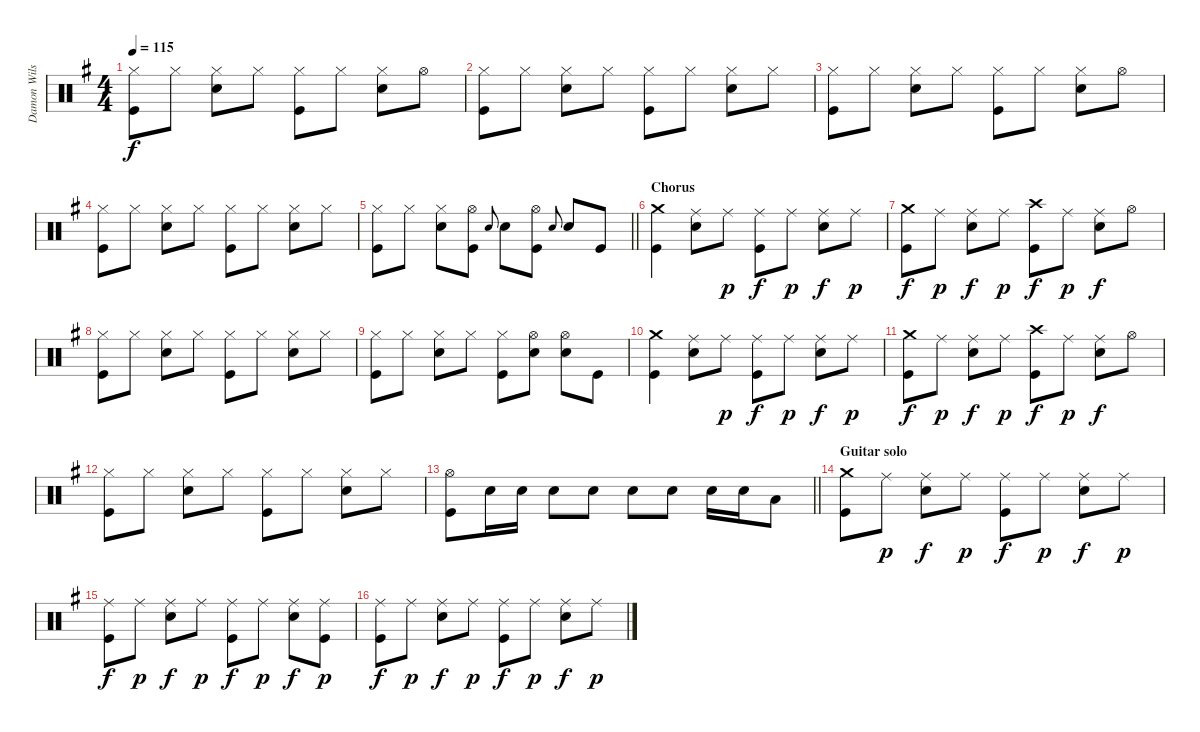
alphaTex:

\track ("Damon Wilson" "Damon Wils") {instrument percussion}
\staff {score}
\articulation defaults
\ts (4 4)
\tempo 115
\clef neutral
\ks g
("Hi-Hat (closed)" "Kick (hit)").8{dy f} "Hi-Hat (closed)".8 ("Hi-Hat (closed)" "Electric Snare (hit)").8 "Hi-Hat (closed)".8 ("Hi-Hat (closed)" "Kick (hit)").8 "Hi-Hat (closed)".8 ("Hi-Hat (closed)" "Electric Snare (hit)").8 "Hi-Hat (open)".8 |
("Hi-Hat (closed)" "Kick (hit)").8 "Hi-Hat (closed)".8 ("Hi-Hat (closed)" "Electric Snare (hit)").8 "Hi-Hat (closed)".8 ("Hi-Hat (closed)" "Kick (hit)").8 "Hi-Hat (closed)".8 ("Hi-Hat (closed)" "Electric Snare (hit)").8 "Hi-Hat (closed)".8 |
("Hi-Hat (closed)" "Kick (hit)").8 "Hi-Hat (closed)".8 ("Hi-Hat (closed)" "Electric Snare (hit)").8 "Hi-Hat (closed)".8 ("Hi-Hat (closed)" "Kick (hit)").8 "Hi-Hat (closed)".8 ("Hi-Hat (closed)" "Electric Snare (hit)").8 "Hi-Hat (open)".8 |
("Hi-Hat (closed)" "Kick (hit)").8 "Hi-Hat (closed)".8 ("Hi-Hat (closed)" "Electric Snare (hit)").8 "Hi-Hat (closed)".8 ("Hi-Hat (closed)" "Kick (hit)").8 "Hi-Hat (closed)".8 ("Hi-Hat (closed)" "Electric Snare (hit)").8 "Hi-Hat (closed)".8 |
\barLineRight lightlight
("Hi-Hat (closed)" "Kick (hit)").8 "Hi-Hat (closed)".8 ("Hi-Hat (closed)" "Electric Snare (hit)").8 ("Hi-Hat (open)" "Kick (hit)").8 "Electric Snare (hit)".8{gr onbeat} "Electric Snare (hit)".8 ("Hi-Hat (open)" "Kick (hit)").8 "Electric Snare (hit)".8{gr onbeat} "Electric Snare (hit)".8 "Kick (hit)".8 |
\section ("" "Chorus")
("Crash medium (hit)" "Kick (hit)").4 ("Ride (middle)" "Electric Snare (hit)").8 "Ride (middle)".8{dy p} ("Ride (middle)" "Kick (hit)").8{dy f} "Ride (middle)".8{dy p} ("Ride (middle)" "Electric Snare (hit)").8{dy f} "Ride (middle)".8{dy p} |
("Crash medium (hit)" "Kick (hit)").8{dy f} "Ride (middle)".8{dy p} ("Ride (middle)" "Electric Snare (hit)").8{dy f} "Ride (middle)".8{dy p} ("Crash high (hit)" "Kick (hit)").8{dy f} "Ride (middle)".8{dy p} ("Ride (middle)" "Electric Snare (hit)").8{dy f} "Hi-Hat (open)".8 |
("Hi-Hat (closed)" "Kick (hit)").8 "Hi-Hat (closed)".8 ("Hi-Hat (closed)" "Electric Snare (hit)").8 "Hi-Hat (closed)".8 ("Hi-Hat (closed)" "Kick (hit)").8 "Hi-Hat (closed)".8 ("Hi-Hat (closed)" "Electric Snare (hit)").8 "Hi-Hat (closed)".8 |
("Hi-Hat (closed)" "Kick (hit)").8 "Hi-Hat (closed)".8 ("Hi-Hat (closed)" "Electric Snare (hit)").8 "Hi-Hat (closed)".8 ("Hi-Hat (closed)" "Kick (hit)").8 ("Hi-Hat (open)" "Electric Snare (hit)").8 ("Hi-Hat (open)" "Electric Snare (hit)").8 "Kick (hit)".8 |
("Crash medium (hit)" "Kick (hit)").4 ("Ride (middle)" "Electric Snare (hit)").8 "Ride (middle)".8{dy p} ("Ride (middle)" "Kick (hit)").8{dy f} "Ride (middle)".8{dy p} ("Ride (middle)" "Electric Snare (hit)").8{dy f} "Ride (middle)".8{dy p} |
("Crash medium (hit)" "Kick (hit)").8{dy f} "Ride (middle)".8{dy p} ("Ride (middle)" "Electric Snare (hit)").8{dy f} "Ride (middle)".8{dy p} ("Crash high (hit)" "Kick (hit)").8{dy f} "Ride (middle)".8{dy p} ("Ride (middle)" "Electric Snare (hit)").8{dy f} "Hi-Hat (open)".8 |
("Hi-Hat (closed)" "Kick (hit)").8 "Hi-Hat (closed)".8 ("Hi-Hat (closed)" "Electric Snare (hit)").8 "Hi-Hat (closed)".8 ("Hi-Hat (closed)" "Kick (hit)").8 "Hi-Hat (closed)".8 ("Hi-Hat (closed)" "Electric Snare (hit)").8 "Hi-Hat (closed)".8 |
\barLineRight lightlight
("Hi-Hat (open)" "Kick (hit)").8 "Electric Snare (hit)".16 "Electric Snare (hit)".16 "Electric Snare (hit)".8 "Electric Snare (hit)".8 "Electric Snare (hit)".8 "Electric Snare (hit)".8 "Electric Snare (hit)".16 "Electric Snare (hit)".16 "Low Tom (hit)".8 |
\section ("" "Guitar solo")
("Crash medium (hit)" "Kick (hit)").8 "Ride (middle)".8{dy p} ("Ride (middle)" "Electric Snare (hit)").8{dy f} "Ride (middle)".8{dy p} ("Ride (middle)" "Kick (hit)").8{dy f} "Ride (middle)".8{dy p} ("Ride (middle)" "Electric Snare (hit)").8{dy f} "Ride (middle)".8{dy p} |
("Ride (middle)" "Kick (hit)").8{dy f} "Ride (middle)".8{dy p} ("Ride (middle)" "Electric Snare (hit)").8{dy f} "Ride (middle)".8{dy p} ("Ride (middle)" "Kick (hit)").8{dy f} "Ride (middle)".8{dy p} ("Ride (middle)" "Electric Snare (hit)").8{dy f} ("Ride (middle)" "Kick (hit)").8{dy p} |
("Ride (middle)" "Kick (hit)").8{dy f} "Ride (middle)".8{dy p} ("Ride (middle)" "Electric Snare (hit)").8{dy f} "Ride (middle)".8{dy p} ("Ride (middle)" "Kick (hit)").8{dy f} "Ride (middle)".8{dy p} ("Ride (middle)" "Electric Snare (hit)").8{dy f} "Ride (middle)".8{dy p}
